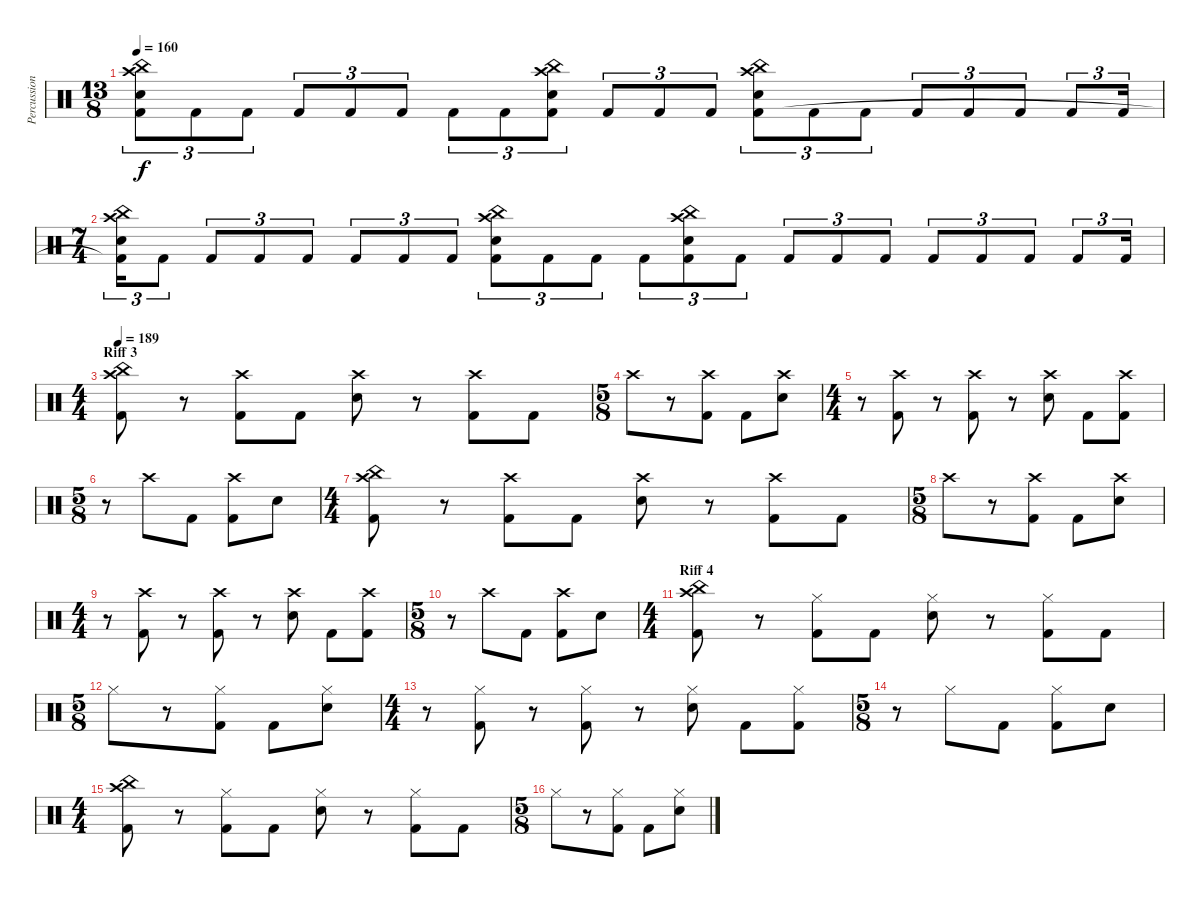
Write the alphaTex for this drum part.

\track ("Percussion" "Percussion") {instrument percussion}
\staff {score}
\articulation defaults
\ts (13 8)
\tempo 160
\clef neutral
\ks c
("China (hit)" "Crash high (hit)" "Electric Snare (hit)" "Kick (hit) 2").8{tu (3 2) dy f} "Kick (hit) 2".8{tu (3 2)} "Kick (hit) 2".8{tu (3 2)} "Kick (hit) 2".8{tu (3 2)} "Kick (hit) 2".8{tu (3 2)} "Kick (hit) 2".8{tu (3 2)} "Kick (hit) 2".8{tu (3 2)} "Kick (hit) 2".8{tu (3 2)} ("China (hit)" "Crash high (hit)" "Electric Snare (hit)" "Kick (hit) 2").8{tu (3 2)} "Kick (hit) 2".8{tu (3 2)} "Kick (hit) 2".8{tu (3 2)} "Kick (hit) 2".8{tu (3 2)} ("China (hit)" "Crash high (hit)" "Electric Snare (hit)" "Kick (hit) 2").8{tu (3 2)} "Kick (hit) 2".8{tu (3 2)} "Kick (hit) 2".8{tu (3 2)} "Kick (hit) 2".8{tu (3 2)} "Kick (hit) 2".8{tu (3 2)} "Kick (hit) 2".8{tu (3 2)} "Kick (hit) 2".8{tu (3 2)} "Kick (hit) 2".16{tu (3 2)} |
\ts (7 4)
("China (hit)" "Crash high (hit)" "Electric Snare (hit)" "Kick (hit) 2"{t}).16{tu (3 2)} "Kick (hit) 2".8{tu (3 2)} "Kick (hit) 2".8{tu (3 2)} "Kick (hit) 2".8{tu (3 2)} "Kick (hit) 2".8{tu (3 2)} "Kick (hit) 2".8{tu (3 2)} "Kick (hit) 2".8{tu (3 2)} "Kick (hit) 2".8{tu (3 2)} ("China (hit)" "Crash high (hit)" "Electric Snare (hit)" "Kick (hit) 2").8{tu (3 2)} "Kick (hit) 2".8{tu (3 2)} "Kick (hit) 2".8{tu (3 2)} "Kick (hit) 2".8{tu (3 2)} ("China (hit)" "Crash high (hit)" "Electric Snare (hit)" "Kick (hit) 2").8{tu (3 2)} "Kick (hit) 2".8{tu (3 2)} "Kick (hit) 2".8{tu (3 2)} "Kick (hit) 2".8{tu (3 2)} "Kick (hit) 2".8{tu (3 2)} "Kick (hit) 2".8{tu (3 2)} "Kick (hit) 2".8{tu (3 2)} "Kick (hit) 2".8{tu (3 2)} "Kick (hit) 2".8{tu (3 2)} "Kick (hit) 2".16{tu (3 2)} |
\ts (4 4)
\section ("" "Riff 3")
\tempo 189
("China (hit)" "Crash high (hit)" "Kick (hit) 2").8 r.8 ("Crash high (hit)" "Kick (hit) 2").8 "Kick (hit) 2".8 ("Crash high (hit)" "Electric Snare (hit)").8 r.8 ("Crash high (hit)" "Kick (hit) 2").8 "Kick (hit) 2".8 |
\ts (5 8)
"Crash high (hit)".8 r.8 ("Crash high (hit)" "Kick (hit) 2").8 "Kick (hit) 2".8 ("Crash high (hit)" "Electric Snare (hit)").8 |
\ts (4 4)
r.8 ("Crash high (hit)" "Kick (hit) 2").8 r.8 ("Crash high (hit)" "Kick (hit) 2").8 r.8 ("Crash high (hit)" "Electric Snare (hit)").8 "Kick (hit) 2".8 ("Crash high (hit)" "Kick (hit) 2").8 |
\ts (5 8)
r.8 "Crash high (hit)".8 "Kick (hit) 2".8 ("Crash high (hit)" "Kick (hit) 2").8 "Electric Snare (hit)".8 |
\ts (4 4)
("China (hit)" "Crash high (hit)" "Kick (hit) 2").8 r.8 ("Crash high (hit)" "Kick (hit) 2").8 "Kick (hit) 2".8 ("Crash high (hit)" "Electric Snare (hit)").8 r.8 ("Crash high (hit)" "Kick (hit) 2").8 "Kick (hit) 2".8 |
\ts (5 8)
"Crash high (hit)".8 r.8 ("Crash high (hit)" "Kick (hit) 2").8 "Kick (hit) 2".8 ("Crash high (hit)" "Electric Snare (hit)").8 |
\ts (4 4)
r.8 ("Crash high (hit)" "Kick (hit) 2").8 r.8 ("Crash high (hit)" "Kick (hit) 2").8 r.8 ("Crash high (hit)" "Electric Snare (hit)").8 "Kick (hit) 2".8 ("Crash high (hit)" "Kick (hit) 2").8 |
\ts (5 8)
r.8 "Crash high (hit)".8 "Kick (hit) 2".8 ("Crash high (hit)" "Kick (hit) 2").8 "Electric Snare (hit)".8 |
\ts (4 4)
\section ("" "Riff 4")
("China (hit)" "Crash high (hit)" "Kick (hit) 2").8 r.8 ("Hi-Hat (closed)" "Kick (hit) 2").8 "Kick (hit) 2".8 ("Hi-Hat (closed)" "Electric Snare (hit)").8 r.8 ("Hi-Hat (closed)" "Kick (hit) 2").8 "Kick (hit) 2".8 |
\ts (5 8)
"Hi-Hat (closed)".8 r.8 ("Hi-Hat (closed)" "Kick (hit) 2").8 "Kick (hit) 2".8 ("Hi-Hat (closed)" "Electric Snare (hit)").8 |
\ts (4 4)
r.8 ("Hi-Hat (closed)" "Kick (hit) 2").8 r.8 ("Hi-Hat (closed)" "Kick (hit) 2").8 r.8 ("Hi-Hat (closed)" "Electric Snare (hit)").8 "Kick (hit) 2".8 ("Hi-Hat (closed)" "Kick (hit) 2").8 |
\ts (5 8)
r.8 "Hi-Hat (closed)".8 "Kick (hit) 2".8 ("Hi-Hat (closed)" "Kick (hit) 2").8 "Electric Snare (hit)".8 |
\ts (4 4)
("China (hit)" "Crash high (hit)" "Kick (hit) 2").8 r.8 ("Hi-Hat (closed)" "Kick (hit) 2").8 "Kick (hit) 2".8 ("Hi-Hat (closed)" "Electric Snare (hit)").8 r.8 ("Hi-Hat (closed)" "Kick (hit) 2").8 "Kick (hit) 2".8 |
\ts (5 8)
"Hi-Hat (closed)".8 r.8 ("Hi-Hat (closed)" "Kick (hit) 2").8 "Kick (hit) 2".8 ("Hi-Hat (closed)" "Electric Snare (hit)").8
